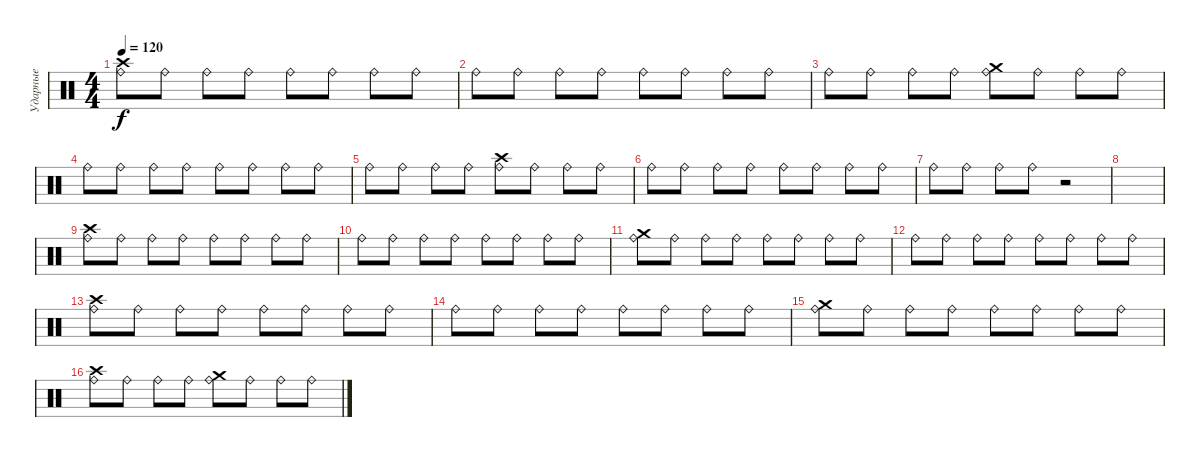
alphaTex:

\track ("Ударные" "Ударные") {instrument percussion}
\staff {score}
\articulation defaults
\ts (4 4)
\tempo 120
\clef neutral
\ks c
("Crash high (hit)" "Ride (bell)").8{dy f} "Ride (bell)".8 "Ride (bell)".8 "Ride (bell)".8 "Ride (bell)".8 "Ride (bell)".8 "Ride (bell)".8 "Ride (bell)".8 |
"Ride (bell)".8 "Ride (bell)".8 "Ride (bell)".8 "Ride (bell)".8 "Ride (bell)".8 "Ride (bell)".8 "Ride (bell)".8 "Ride (bell)".8 |
"Ride (bell)".8 "Ride (bell)".8 "Ride (bell)".8 "Ride (bell)".8 ("Crash medium (hit)" "Ride (bell)").8 "Ride (bell)".8 "Ride (bell)".8 "Ride (bell)".8 |
"Ride (bell)".8 "Ride (bell)".8 "Ride (bell)".8 "Ride (bell)".8 "Ride (bell)".8 "Ride (bell)".8 "Ride (bell)".8 "Ride (bell)".8 |
"Ride (bell)".8 "Ride (bell)".8 "Ride (bell)".8 "Ride (bell)".8 ("Crash high (hit)" "Ride (bell)").8 "Ride (bell)".8 "Ride (bell)".8 "Ride (bell)".8 |
"Ride (bell)".8 "Ride (bell)".8 "Ride (bell)".8 "Ride (bell)".8 "Ride (bell)".8 "Ride (bell)".8 "Ride (bell)".8 "Ride (bell)".8 |
"Ride (bell)".8 "Ride (bell)".8 "Ride (bell)".8 "Ride (bell)".8 r.2 |
|
("Crash high (hit)" "Ride (bell)").8 "Ride (bell)".8 "Ride (bell)".8 "Ride (bell)".8 "Ride (bell)".8 "Ride (bell)".8 "Ride (bell)".8 "Ride (bell)".8 |
"Ride (bell)".8 "Ride (bell)".8 "Ride (bell)".8 "Ride (bell)".8 "Ride (bell)".8 "Ride (bell)".8 "Ride (bell)".8 "Ride (bell)".8 |
("Crash medium (hit)" "Ride (bell)").8 "Ride (bell)".8 "Ride (bell)".8 "Ride (bell)".8 "Ride (bell)".8 "Ride (bell)".8 "Ride (bell)".8 "Ride (bell)".8 |
"Ride (bell)".8 "Ride (bell)".8 "Ride (bell)".8 "Ride (bell)".8 "Ride (bell)".8 "Ride (bell)".8 "Ride (bell)".8 "Ride (bell)".8 |
("Crash high (hit)" "Ride (bell)").8 "Ride (bell)".8 "Ride (bell)".8 "Ride (bell)".8 "Ride (bell)".8 "Ride (bell)".8 "Ride (bell)".8 "Ride (bell)".8 |
"Ride (bell)".8 "Ride (bell)".8 "Ride (bell)".8 "Ride (bell)".8 "Ride (bell)".8 "Ride (bell)".8 "Ride (bell)".8 "Ride (bell)".8 |
("Crash medium (hit)" "Ride (bell)").8 "Ride (bell)".8 "Ride (bell)".8 "Ride (bell)".8 "Ride (bell)".8 "Ride (bell)".8 "Ride (bell)".8 "Ride (bell)".8 |
("Crash high (hit)" "Ride (bell)").8 "Ride (bell)".8 "Ride (bell)".8 "Ride (bell)".8 ("Crash medium (hit)" "Ride (bell)").8 "Ride (bell)".8 "Ride (bell)".8 "Ride (bell)".8
